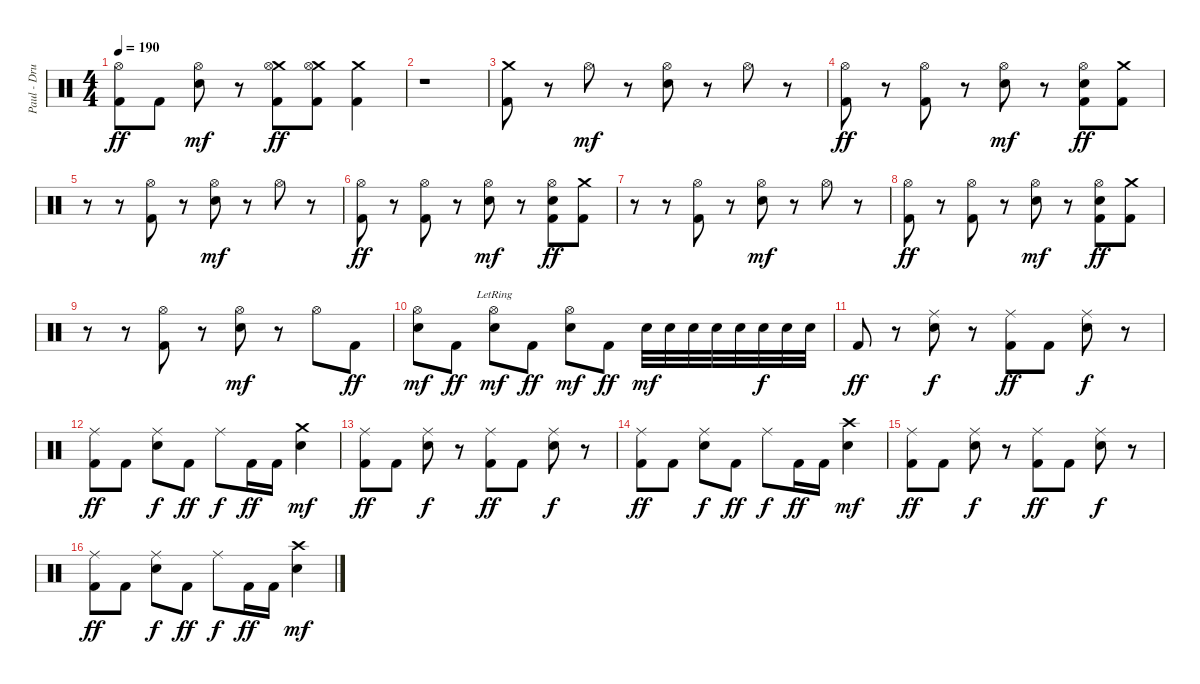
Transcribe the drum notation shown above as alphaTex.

\track ("Paul - Drums" "Paul - Dru") {instrument percussion}
\staff {score}
\articulation defaults
\ts (4 4)
\tempo 190
\clef neutral
\ks c
("Hi-Hat (open)" "Kick (hit) 2").8{dy ff} "Kick (hit) 2".8 ("Hi-Hat (open)" "Electric Snare (hit)").8{dy mf} r.8 ("Crash medium (hit)" "Hi-Hat (open)" "Kick (hit) 2").8{dy ff} ("Crash medium (hit)" "Hi-Hat (open)" "Kick (hit) 2").8 ("Crash medium (hit)" "Kick (hit) 2").4 |
r.1 |
("Crash medium (hit)" "Kick (hit) 2").8 r.8 "Hi-Hat (open)".8{dy mf} r.8 ("Hi-Hat (open)" "Electric Snare (hit)").8 r.8 "Hi-Hat (open)".8 r.8 |
("Hi-Hat (open)" "Kick (hit) 2").8{dy ff} r.8 ("Hi-Hat (open)" "Kick (hit) 2").8 r.8 ("Hi-Hat (open)" "Electric Snare (hit)").8{dy mf} r.8 ("Hi-Hat (open)" "Electric Snare (hit)" "Kick (hit) 2").8{dy ff} ("Crash medium (hit)" "Kick (hit) 2").8 |
r.8 r.8 ("Hi-Hat (open)" "Kick (hit) 2").8 r.8 ("Hi-Hat (open)" "Electric Snare (hit)").8{dy mf} r.8 "Hi-Hat (open)".8 r.8 |
("Hi-Hat (open)" "Kick (hit) 2").8{dy ff} r.8 ("Hi-Hat (open)" "Kick (hit) 2").8 r.8 ("Hi-Hat (open)" "Electric Snare (hit)").8{dy mf} r.8 ("Hi-Hat (open)" "Electric Snare (hit)" "Kick (hit) 2").8{dy ff} ("Crash medium (hit)" "Kick (hit) 2").8 |
r.8 r.8 ("Hi-Hat (open)" "Kick (hit) 2").8 r.8 ("Hi-Hat (open)" "Electric Snare (hit)").8{dy mf} r.8 "Hi-Hat (open)".8 r.8 |
("Hi-Hat (open)" "Kick (hit) 2").8{dy ff} r.8 ("Hi-Hat (open)" "Kick (hit) 2").8 r.8 ("Hi-Hat (open)" "Electric Snare (hit)").8{dy mf} r.8 ("Hi-Hat (open)" "Electric Snare (hit)" "Kick (hit) 2").8{dy ff} ("Crash medium (hit)" "Kick (hit) 2").8 |
r.8 r.8 ("Hi-Hat (open)" "Kick (hit) 2").8 r.8 ("Hi-Hat (open)" "Electric Snare (hit)").8{dy mf} r.8 "Hi-Hat (open)".8 "Kick (hit) 2".8{dy ff} |
("Hi-Hat (open)" "Electric Snare (hit)").8{dy mf} "Kick (hit) 2".8{dy ff} ("Hi-Hat (open)"{lr} "Electric Snare (hit)").8{dy mf} "Kick (hit) 2".8{dy ff} ("Hi-Hat (open)" "Electric Snare (hit)").8{dy mf} "Kick (hit) 2".8{dy ff} "Electric Snare (hit)".32{dy mf} "Electric Snare (hit)".32 "Electric Snare (hit)".32 "Electric Snare (hit)".32 "Electric Snare (hit)".32 "Electric Snare (hit)".32{dy f} "Electric Snare (hit)".32 "Electric Snare (hit)".32 |
"Kick (hit) 2".8{dy ff} r.8 ("Ride (middle)" "Electric Snare (hit)").8{dy f} r.8 ("Ride (middle)" "Kick (hit) 2").8{dy ff} "Kick (hit) 2".8 ("Ride (middle)" "Electric Snare (hit)").8{dy f} r.8 |
("Ride (middle)" "Kick (hit) 2").8{dy ff} "Kick (hit) 2".8 ("Ride (middle)" "Electric Snare (hit)").8{dy f} "Kick (hit) 2".8{dy ff} "Ride (middle)".8{dy f} "Kick (hit) 2".16{dy ff} "Kick (hit) 2".16 ("Crash medium (hit)" "Electric Snare (hit)").4{dy mf} |
("Ride (middle)" "Kick (hit) 2").8{dy ff} "Kick (hit) 2".8 ("Ride (middle)" "Electric Snare (hit)").8{dy f} r.8 ("Ride (middle)" "Kick (hit) 2").8{dy ff} "Kick (hit) 2".8 ("Ride (middle)" "Electric Snare (hit)").8{dy f} r.8 |
("Ride (middle)" "Kick (hit) 2").8{dy ff} "Kick (hit) 2".8 ("Ride (middle)" "Electric Snare (hit)").8{dy f} "Kick (hit) 2".8{dy ff} "Ride (middle)".8{dy f} "Kick (hit) 2".16{dy ff} "Kick (hit) 2".16 ("Crash high (hit)" "Electric Snare (hit)").4{dy mf} |
("Ride (middle)" "Kick (hit) 2").8{dy ff} "Kick (hit) 2".8 ("Ride (middle)" "Electric Snare (hit)").8{dy f} r.8 ("Ride (middle)" "Kick (hit) 2").8{dy ff} "Kick (hit) 2".8 ("Ride (middle)" "Electric Snare (hit)").8{dy f} r.8 |
("Ride (middle)" "Kick (hit) 2").8{dy ff} "Kick (hit) 2".8 ("Ride (middle)" "Electric Snare (hit)").8{dy f} "Kick (hit) 2".8{dy ff} "Ride (middle)".8{dy f} "Kick (hit) 2".16{dy ff} "Kick (hit) 2".16 ("Crash high (hit)" "Electric Snare (hit)").4{dy mf}
